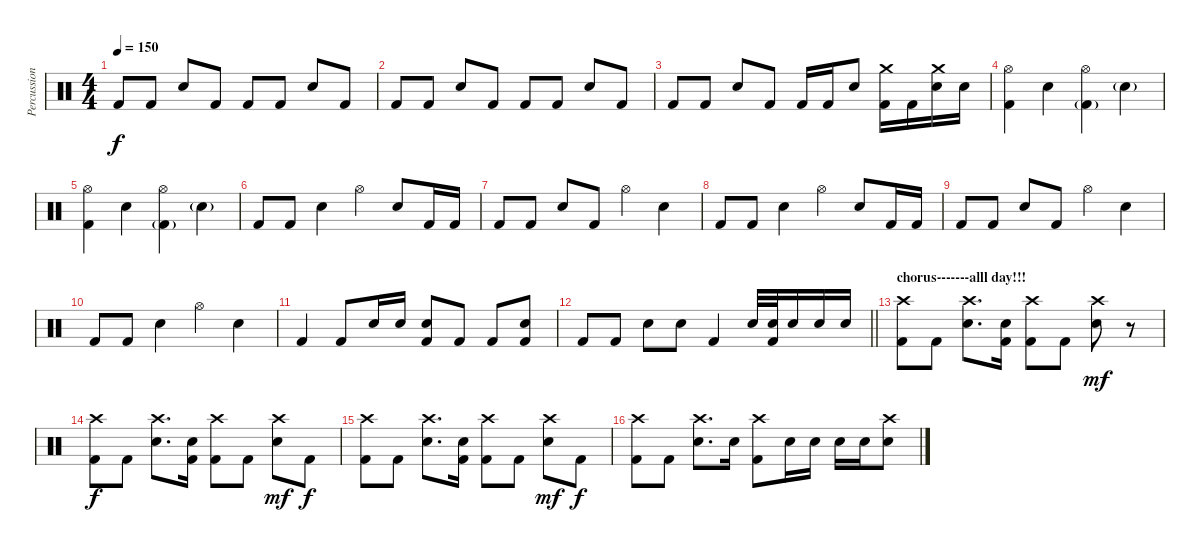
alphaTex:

\track ("Percussion" "Percussion") {instrument percussion}
\staff {score}
\articulation defaults
\ts (4 4)
\tempo 150
\clef neutral
\ks c "Kick (hit) 2".8{dy f} "Kick (hit) 2".8 "Electric Snare (hit)".8 "Kick (hit) 2".8 "Kick (hit) 2".8 "Kick (hit) 2".8 "Electric Snare (hit)".8 "Kick (hit) 2".8
|
"Kick (hit) 2".8 "Kick (hit) 2".8 "Electric Snare (hit)".8 "Kick (hit) 2".8 "Kick (hit) 2".8 "Kick (hit) 2".8 "Electric Snare (hit)".8 "Kick (hit) 2".8 |
"Kick (hit) 2".8 "Kick (hit) 2".8 "Electric Snare (hit)".8 "Kick (hit) 2".8 "Kick (hit) 2".16 "Kick (hit) 2".16 "Electric Snare (hit)".8 ("Kick (hit) 2" "Crash medium (hit)").16 "Kick (hit) 2".16 ("Electric Snare (hit)" "Crash medium (hit)").16 "Electric Snare (hit)".16 |
("Kick (hit) 2" "Hi-Hat (open)").4 "Electric Snare (hit)".4 ("Kick (hit) 2"{g} "Hi-Hat (open)").4 "Electric Snare (hit)"{g}.4 |
("Kick (hit) 2" "Hi-Hat (open)").4 "Electric Snare (hit)".4 ("Kick (hit) 2"{g} "Hi-Hat (open)").4 "Electric Snare (hit)"{g}.4 |
"Kick (hit) 2".8 "Kick (hit) 2".8 "Electric Snare (hit)".4 "Hi-Hat (open)".4 "Electric Snare (hit)".8 "Kick (hit) 2".16 "Kick (hit) 2".16 |
"Kick (hit) 2".8 "Kick (hit) 2".8 "Electric Snare (hit)".8 "Kick (hit) 2".8 "Hi-Hat (open)".4 "Electric Snare (hit)".4 |
"Kick (hit) 2".8 "Kick (hit) 2".8 "Electric Snare (hit)".4 "Hi-Hat (open)".4 "Electric Snare (hit)".8 "Kick (hit) 2".16 "Kick (hit) 2".16 |
"Kick (hit) 2".8 "Kick (hit) 2".8 "Electric Snare (hit)".8 "Kick (hit) 2".8 "Hi-Hat (open)".4 "Electric Snare (hit)".4 |
"Kick (hit) 2".8 "Kick (hit) 2".8 "Electric Snare (hit)".4 "Hi-Hat (open)".4 "Electric Snare (hit)".4 |
"Kick (hit) 2".4 "Kick (hit) 2".8 "Electric Snare (hit)".16 "Electric Snare (hit)".16 ("Kick (hit) 2" "Electric Snare (hit)").8 "Kick (hit) 2".8 "Kick (hit) 2".8 ("Kick (hit) 2" "Electric Snare (hit)").8 |
\barLineRight lightlight "Kick (hit) 2".8 "Kick (hit) 2".8 "Electric Snare (hit)".8 "Electric Snare (hit)".8 "Kick (hit) 2".4 "Electric Snare (hit)".32
("Kick (hit) 2" "Electric Snare (hit)").32 "Electric Snare (hit)".16 "Electric Snare (hit)".16 "Electric Snare (hit)".16 |
\section ("" "chorus-------alll day!!!")
("Kick (hit) 2" "Crash high (hit)").8 "Kick (hit) 2".8 ("Electric Snare (hit)" "Crash high (hit)").8{d} ("Kick (hit) 2" "Electric Snare (hit)").16 ("Kick (hit) 2" "Crash high (hit)").8 "Kick (hit) 2".8 ("Electric Snare (hit)" "Crash high (hit)").8{dy mf} r.8 |
("Kick (hit) 2" "Crash high (hit)").8{dy f} "Kick (hit) 2".8 ("Electric Snare (hit)" "Crash high (hit)").8{d} ("Kick (hit) 2" "Electric Snare (hit)").16 ("Kick (hit) 2" "Crash high (hit)").8 "Kick (hit) 2".8 ("Electric Snare (hit)" "Crash high (hit)").8{dy mf} "Kick (hit) 2".8{dy f} |
("Kick (hit) 2" "Crash high (hit)").8 "Kick (hit) 2".8 ("Electric Snare (hit)" "Crash high (hit)").8{d} ("Kick (hit) 2" "Electric Snare (hit)").16 ("Kick (hit) 2" "Crash high (hit)").8 "Kick (hit) 2".8 ("Electric Snare (hit)" "Crash high (hit)").8{dy mf} "Kick (hit) 2".8{dy f} |
("Kick (hit) 2" "Crash high (hit)").8 "Kick (hit) 2".8 ("Electric Snare (hit)" "Crash high (hit)").8{d} "Electric Snare (hit)".16 ("Kick (hit) 2" "Crash high (hit)").8 "Electric Snare (hit)".16 "Electric Snare (hit)".16 "Electric Snare (hit)".16 "Electric Snare (hit)".16 ("Electric Snare (hit)" "Crash high (hit)").8
